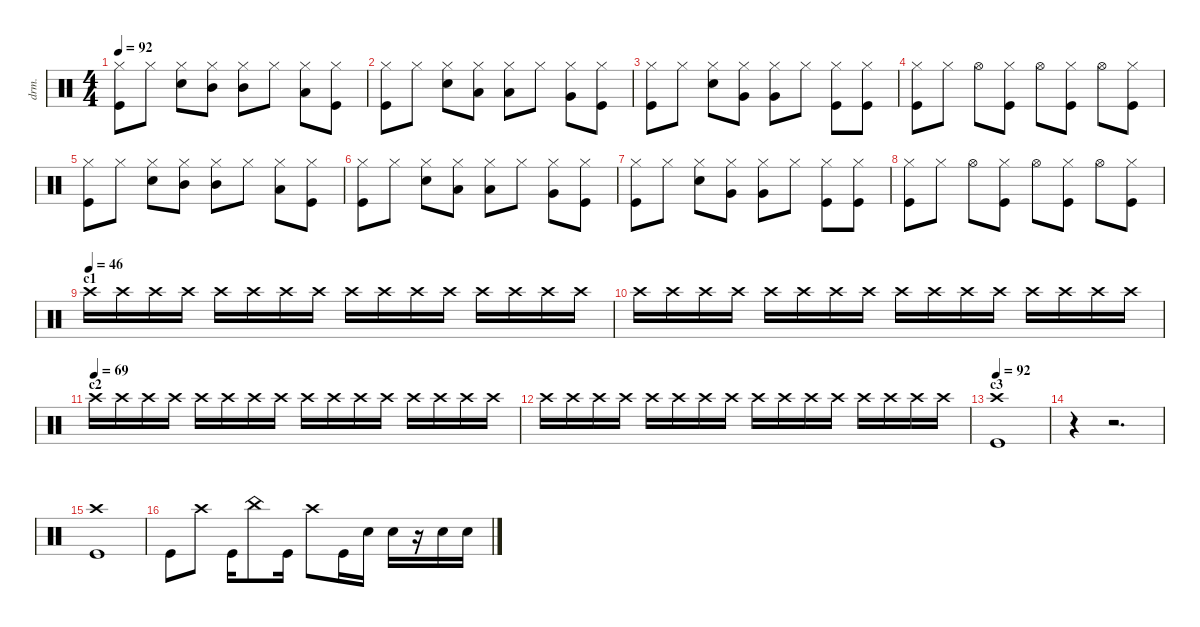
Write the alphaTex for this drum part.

\defaultSystemsLayout 4
\hideDynamics
\bracketExtendMode nobrackets
\otherSystemsTrackNameOrientation horizontal
\track ("waves" "drm.") {instrument percussion}
\staff {score}
\articulation defaults
\ts (4 4)
\tempo 92
\clef neutral
\ks c
("Hi-Hat (closed)" "Kick (hit)").8{dy f beam Down} "Hi-Hat (closed)".8{beam Down} ("Hi-Hat (closed)" "Snare (hit) 2").8{beam Down} ("Hi-Hat (closed)" "Mid Tom (hit)").8{beam Down} ("Hi-Hat (closed)" "Mid Tom (hit)").8{beam Down} "Hi-Hat (closed)".8{beam Down} ("Hi-Hat (closed)" "Low Tom (hit)").8{beam Down} ("Hi-Hat (closed)" "Kick (hit)").8{beam Down} |
("Hi-Hat (closed)" "Kick (hit)").8{beam Down} "Hi-Hat (closed)".8{beam Down} ("Hi-Hat (closed)" "Snare (hit) 2").8{beam Down} ("Hi-Hat (closed)" "Low Tom (hit)").8{beam Down} ("Hi-Hat (closed)" "Low Tom (hit)").8{beam Down} "Hi-Hat (closed)".8{beam Down} ("Hi-Hat (closed)" "Very Low Tom (hit)").8{beam Down} ("Hi-Hat (closed)" "Kick (hit)").8{beam Down} |
("Hi-Hat (closed)" "Kick (hit)").8{beam Down} "Hi-Hat (closed)".8{beam Down} ("Hi-Hat (closed)" "Snare (hit) 2").8{beam Down} ("Hi-Hat (closed)" "Very Low Tom (hit)").8{beam Down} ("Hi-Hat (closed)" "Very Low Tom (hit)").8{beam Down} "Hi-Hat (closed)".8{beam Down} ("Hi-Hat (closed)" "Kick (hit)").8{beam Down} ("Hi-Hat (closed)" "Kick (hit)").8{beam Down} |
("Hi-Hat (closed)" "Kick (hit)").8{beam Down} "Hi-Hat (closed)".8{beam Down} "Hi-Hat (open)".8{beam Down} ("Hi-Hat (closed)" "Kick (hit)").8{beam Down} "Hi-Hat (open)".8{beam Down} ("Hi-Hat (closed)" "Kick (hit)").8{beam Down} "Hi-Hat (open)".8{beam Down} ("Hi-Hat (closed)" "Kick (hit)").8{beam Down} |
("Hi-Hat (closed)" "Kick (hit)").8{beam Down} "Hi-Hat (closed)".8{beam Down} ("Hi-Hat (closed)" "Snare (hit) 2").8{beam Down} ("Hi-Hat (closed)" "Mid Tom (hit)").8{beam Down} ("Hi-Hat (closed)" "Mid Tom (hit)").8{beam Down} "Hi-Hat (closed)".8{beam Down} ("Hi-Hat (closed)" "Low Tom (hit)").8{beam Down} ("Hi-Hat (closed)" "Kick (hit)").8{beam Down} |
("Hi-Hat (closed)" "Kick (hit)").8{beam Down} "Hi-Hat (closed)".8{beam Down} ("Hi-Hat (closed)" "Snare (hit) 2").8{beam Down} ("Hi-Hat (closed)" "Low Tom (hit)").8{beam Down} ("Hi-Hat (closed)" "Low Tom (hit)").8{beam Down} "Hi-Hat (closed)".8{beam Down} ("Hi-Hat (closed)" "Very Low Tom (hit)").8{beam Down} ("Hi-Hat (closed)" "Kick (hit)").8{beam Down} |
("Hi-Hat (closed)" "Kick (hit)").8{beam Down} "Hi-Hat (closed)".8{beam Down} ("Hi-Hat (closed)" "Snare (hit) 2").8{beam Down} ("Hi-Hat (closed)" "Very Low Tom (hit)").8{beam Down} ("Hi-Hat (closed)" "Very Low Tom (hit)").8{beam Down} "Hi-Hat (closed)".8{beam Down} ("Hi-Hat (closed)" "Kick (hit)").8{beam Down} ("Hi-Hat (closed)" "Kick (hit)").8{beam Down} |
("Hi-Hat (closed)" "Kick (hit)").8{beam Down} "Hi-Hat (closed)".8{beam Down} "Hi-Hat (open)".8{beam Down} ("Hi-Hat (closed)" "Kick (hit)").8{beam Down} "Hi-Hat (open)".8{beam Down} ("Hi-Hat (closed)" "Kick (hit)").8{beam Down} "Hi-Hat (open)".8{beam Down} ("Hi-Hat (closed)" "Kick (hit)").8{beam Down} |
\section ("" "c1")
\tempo (46)
"Crash high (hit)".16{beam Down} "Crash high (hit)".16{beam Down} "Crash high (hit)".16{beam Down} "Crash high (hit)".16{beam Down} "Crash high (hit)".16{beam Down} "Crash high (hit)".16{beam Down} "Crash high (hit)".16{beam Down} "Crash high (hit)".16{beam Down} "Crash high (hit)".16{beam Down} "Crash high (hit)".16{beam Down} "Crash high (hit)".16{beam Down} "Crash high (hit)".16{beam Down} "Crash high (hit)".16{beam Down} "Crash high (hit)".16{beam Down} "Crash high (hit)".16{beam Down} "Crash high (hit)".16{beam Down} |
"Crash high (hit)".16{beam Down} "Crash high (hit)".16{beam Down} "Crash high (hit)".16{beam Down} "Crash high (hit)".16{beam Down} "Crash high (hit)".16{beam Down} "Crash high (hit)".16{beam Down} "Crash high (hit)".16{beam Down} "Crash high (hit)".16{beam Down} "Crash high (hit)".16{beam Down} "Crash high (hit)".16{beam Down} "Crash high (hit)".16{beam Down} "Crash high (hit)".16{beam Down} "Crash high (hit)".16{beam Down} "Crash high (hit)".16{beam Down} "Crash high (hit)".16{beam Down} "Crash high (hit)".16{beam Down} |
\section ("" "c2")
\tempo (69)
"Crash high (hit)".16{beam Down} "Crash high (hit)".16{beam Down} "Crash high (hit)".16{beam Down} "Crash high (hit)".16{beam Down} "Crash high (hit)".16{beam Down} "Crash high (hit)".16{beam Down} "Crash high (hit)".16{beam Down} "Crash high (hit)".16{beam Down} "Crash high (hit)".16{beam Down} "Crash high (hit)".16{beam Down} "Crash high (hit)".16{beam Down} "Crash high (hit)".16{beam Down} "Crash high (hit)".16{beam Down} "Crash high (hit)".16{beam Down} "Crash high (hit)".16{beam Down} "Crash high (hit)".16{beam Down} |
"Crash high (hit)".16{beam Down} "Crash high (hit)".16{beam Down} "Crash high (hit)".16{beam Down} "Crash high (hit)".16{beam Down} "Crash high (hit)".16{beam Down} "Crash high (hit)".16{beam Down} "Crash high (hit)".16{beam Down} "Crash high (hit)".16{beam Down} "Crash high (hit)".16{beam Down} "Crash high (hit)".16{beam Down} "Crash high (hit)".16{beam Down} "Crash high (hit)".16{beam Down} "Crash high (hit)".16{beam Down} "Crash high (hit)".16{beam Down} "Crash high (hit)".16{beam Down} "Crash high (hit)".16{beam Down} |
\section ("" "c3")
\tempo 92
("Crash high (hit)" "Kick (hit)").1{beam Down} |
r.4{beam Down} r.2{d beam Down} |
("Crash high (hit)" "Kick (hit)").1{beam Down} |
"Kick (hit)".8{beam Down} "Crash high (hit)".8{beam Down} "Kick (hit)".16{beam Down} "China (hit)".8{beam Down} "Kick (hit)".16{beam Down} "Crash high (hit)".8{beam Down} "Kick (hit)".16{beam Down} "Snare (hit) 2".16{beam Down} "Snare (hit) 2".16{beam Down} r.16{beam Down} "Snare (hit) 2".16{beam Down} "Snare (hit) 2".16{beam Down}
